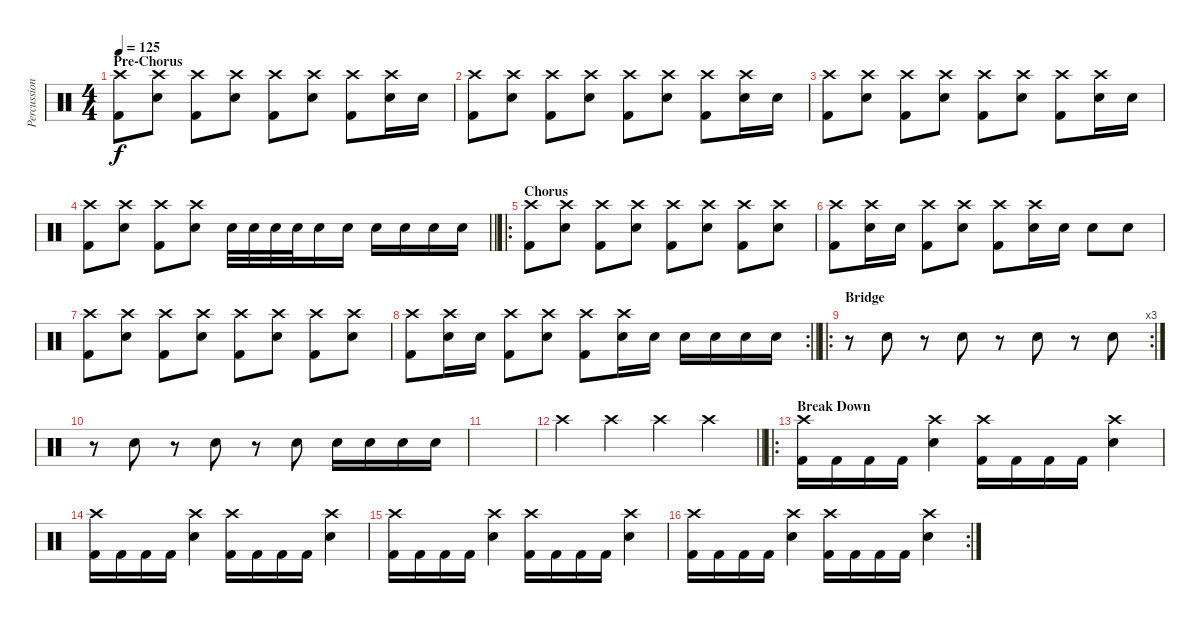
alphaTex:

\track ("Percussion" "Percussion") {instrument percussion}
\staff {score}
\articulation defaults
\ts (4 4)
\section ("" "Pre-Chorus")
\tempo 125
\clef neutral
\ks c
("Crash high (hit)" "Kick (hit) 2").8{dy f} ("Crash high (hit)" "Electric Snare (hit)").8 ("Crash high (hit)" "Kick (hit) 2").8 ("Crash high (hit)" "Electric Snare (hit)").8 ("Crash high (hit)" "Kick (hit) 2").8 ("Crash high (hit)" "Electric Snare (hit)").8 ("Crash high (hit)" "Kick (hit) 2").8 ("Crash high (hit)" "Electric Snare (hit)").16 "Electric Snare (hit)".16 |
("Crash high (hit)" "Kick (hit) 2").8 ("Crash high (hit)" "Electric Snare (hit)").8 ("Crash high (hit)" "Kick (hit) 2").8 ("Crash high (hit)" "Electric Snare (hit)").8 ("Crash high (hit)" "Kick (hit) 2").8 ("Crash high (hit)" "Electric Snare (hit)").8 ("Crash high (hit)" "Kick (hit) 2").8 ("Crash high (hit)" "Electric Snare (hit)").16 "Electric Snare (hit)".16 |
("Crash high (hit)" "Kick (hit) 2").8 ("Crash high (hit)" "Electric Snare (hit)").8 ("Crash high (hit)" "Kick (hit) 2").8 ("Crash high (hit)" "Electric Snare (hit)").8 ("Crash high (hit)" "Kick (hit) 2").8 ("Crash high (hit)" "Electric Snare (hit)").8 ("Crash high (hit)" "Kick (hit) 2").8 ("Crash high (hit)" "Electric Snare (hit)").16 "Electric Snare (hit)".16 |
\barLineRight lightlight
("Crash high (hit)" "Kick (hit) 2").8 ("Crash high (hit)" "Electric Snare (hit)").8 ("Crash high (hit)" "Kick (hit) 2").8 ("Crash high (hit)" "Electric Snare (hit)").8 "Electric Snare (hit)".32 "Electric Snare (hit)".32 "Electric Snare (hit)".32 "Electric Snare (hit)".32 "Electric Snare (hit)".16 "Electric Snare (hit)".16 "Electric Snare (hit)".16 "Electric Snare (hit)".16 "Electric Snare (hit)".16 "Electric Snare (hit)".16 |
\ro
\section ("" "Chorus")
("Crash high (hit)" "Kick (hit) 2").8 ("Crash high (hit)" "Electric Snare (hit)").8 ("Crash high (hit)" "Kick (hit) 2").8 ("Crash high (hit)" "Electric Snare (hit)").8 ("Crash high (hit)" "Kick (hit) 2").8 ("Crash high (hit)" "Electric Snare (hit)").8 ("Crash high (hit)" "Kick (hit) 2").8 ("Crash high (hit)" "Electric Snare (hit)").8 |
("Crash high (hit)" "Kick (hit) 2").8 ("Crash high (hit)" "Electric Snare (hit)").16 "Electric Snare (hit)".16 ("Crash high (hit)" "Kick (hit) 2").8 ("Crash high (hit)" "Electric Snare (hit)").8 ("Crash high (hit)" "Kick (hit) 2").8 ("Crash high (hit)" "Electric Snare (hit)").16 "Electric Snare (hit)".16 "Electric Snare (hit)".8 "Electric Snare (hit)".8 |
("Crash high (hit)" "Kick (hit) 2").8 ("Crash high (hit)" "Electric Snare (hit)").8 ("Crash high (hit)" "Kick (hit) 2").8 ("Crash high (hit)" "Electric Snare (hit)").8 ("Crash high (hit)" "Kick (hit) 2").8 ("Crash high (hit)" "Electric Snare (hit)").8 ("Crash high (hit)" "Kick (hit) 2").8 ("Crash high (hit)" "Electric Snare (hit)").8 |
\rc 2
\barLineRight lightlight
("Crash high (hit)" "Kick (hit) 2").8 ("Crash high (hit)" "Electric Snare (hit)").16 "Electric Snare (hit)".16 ("Crash high (hit)" "Kick (hit) 2").8 ("Crash high (hit)" "Electric Snare (hit)").8 ("Crash high (hit)" "Kick (hit) 2").8 ("Crash high (hit)" "Electric Snare (hit)").16 "Electric Snare (hit)".16 "Electric Snare (hit)".16 "Electric Snare (hit)".16 "Electric Snare (hit)".16 "Electric Snare (hit)".16 |
\ro
\rc 3
\section ("" "Bridge")
r.8 "Electric Snare (hit)".8 r.8 "Electric Snare (hit)".8 r.8 "Electric Snare (hit)".8 r.8 "Electric Snare (hit)".8 |
r.8 "Electric Snare (hit)".8 r.8 "Electric Snare (hit)".8 r.8 "Electric Snare (hit)".8 "Electric Snare (hit)".16 "Electric Snare (hit)".16 "Electric Snare (hit)".16 "Electric Snare (hit)".16 |
|
\barLineRight lightlight "Crash high (hit)".4 "Crash high (hit)".4 "Crash high (hit)".4 "Crash high (hit)".4
|
\ro
\section ("" "Break Down")
("Crash high (hit)" "Kick (hit) 2").16 "Kick (hit) 2".16 "Kick (hit) 2".16 "Kick (hit) 2".16 ("Crash high (hit)" "Electric Snare (hit)").4 ("Crash high (hit)" "Kick (hit) 2").16 "Kick (hit) 2".16 "Kick (hit) 2".16 "Kick (hit) 2".16 ("Crash high (hit)" "Electric Snare (hit)").4 |
("Crash high (hit)" "Kick (hit) 2").16 "Kick (hit) 2".16 "Kick (hit) 2".16 "Kick (hit) 2".16 ("Crash high (hit)" "Electric Snare (hit)").4 ("Crash high (hit)" "Kick (hit) 2").16 "Kick (hit) 2".16 "Kick (hit) 2".16 "Kick (hit) 2".16 ("Crash high (hit)" "Electric Snare (hit)").4 |
("Crash high (hit)" "Kick (hit) 2").16 "Kick (hit) 2".16 "Kick (hit) 2".16 "Kick (hit) 2".16 ("Crash high (hit)" "Electric Snare (hit)").4 ("Crash high (hit)" "Kick (hit) 2").16 "Kick (hit) 2".16 "Kick (hit) 2".16 "Kick (hit) 2".16 ("Crash high (hit)" "Electric Snare (hit)").4 |
\rc 2
("Crash high (hit)" "Kick (hit) 2").16 "Kick (hit) 2".16 "Kick (hit) 2".16 "Kick (hit) 2".16 ("Crash high (hit)" "Electric Snare (hit)").4 ("Crash high (hit)" "Kick (hit) 2").16 "Kick (hit) 2".16 "Kick (hit) 2".16 "Kick (hit) 2".16 ("Crash high (hit)" "Electric Snare (hit)").4
